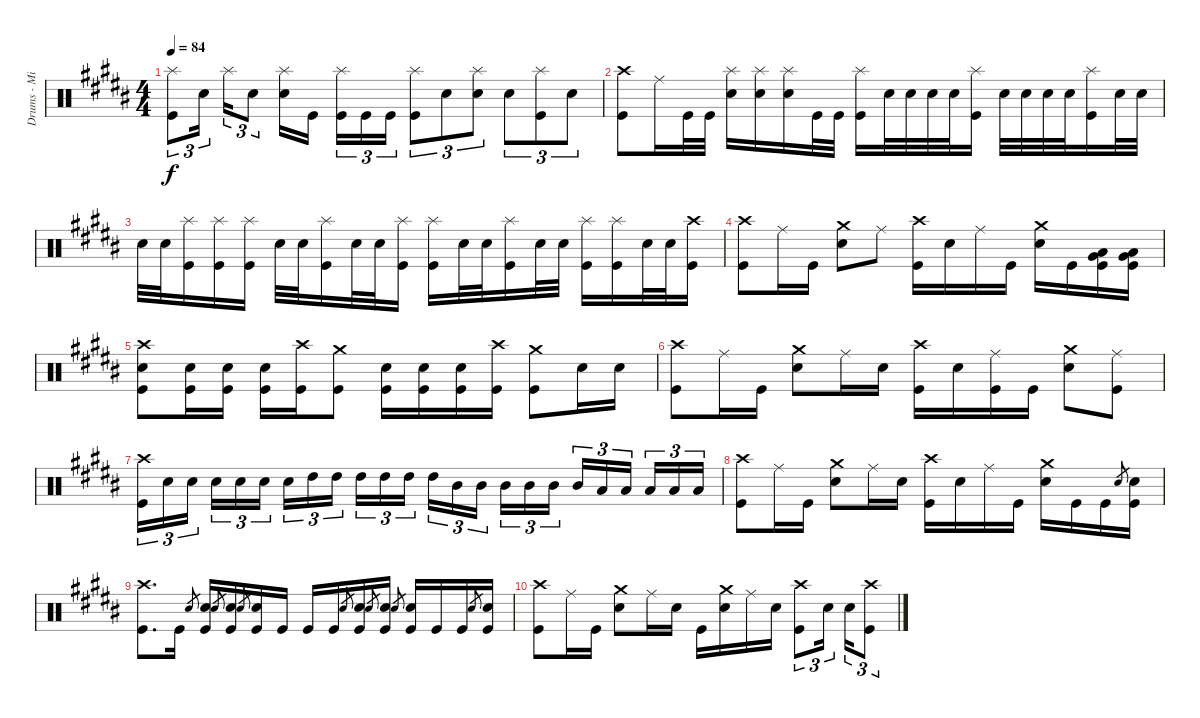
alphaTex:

\track ("Drums - Mike Portnoy" "Drums - Mi") {instrument percussion}
\staff {score}
\articulation defaults
\ts (4 4)
\tempo 84
\clef neutral
\ks b
("Splash (hit)" "Kick (hit)").8{tu (3 2) dy f} "Snare (hit) 2".16{tu (3 2) beam splitsecondary} "Splash (hit)".16{tu (3 2)} "Snare (hit) 2".8{tu (3 2)} ("Splash (hit)" "Snare (hit) 2").16 "Kick (hit)".16{beam splitsecondary} ("Splash (hit)" "Kick (hit)").16{tu (3 2)} "Kick (hit)".16{tu (3 2)} "Kick (hit)".16{tu (3 2)} ("Splash (hit)" "Kick (hit)").8{tu (3 2)} "Snare (hit) 2".8{tu (3 2)} ("Splash (hit)" "Snare (hit) 2").8{tu (3 2)} "Snare (hit) 2".8{tu (3 2)} ("Splash (hit)" "Kick (hit)").8{tu (3 2)} "Snare (hit) 2".8{tu (3 2)} |
("Crash high (hit)" "Kick (hit)").8 "Ride (middle)".16 "Kick (hit)".32 "Kick (hit)".32 ("Splash (hit)" "Snare (hit) 2").16 ("Splash (hit)" "Snare (hit) 2").16 ("Splash (hit)" "Snare (hit) 2").16 "Kick (hit)".32 "Kick (hit)".32 ("Splash (hit)" "Kick (hit)").16 "Snare (hit) 2".32 "Snare (hit) 2".32 "Snare (hit) 2".32 "Snare (hit) 2".32 ("Splash (hit)" "Kick (hit)").16 "Snare (hit) 2".32 "Snare (hit) 2".32 "Snare (hit) 2".32 "Snare (hit) 2".32 ("Splash (hit)" "Kick (hit)").16 "Snare (hit) 2".32 "Snare (hit) 2".32 |
"Snare (hit) 2".32 "Snare (hit) 2".32 ("Splash (hit)" "Kick (hit)").16 ("Splash (hit)" "Kick (hit)").16 ("Splash (hit)" "Kick (hit)").16 "Snare (hit) 2".32 "Snare (hit) 2".32 ("Splash (hit)" "Kick (hit)").16 "Snare (hit) 2".32 "Snare (hit) 2".32 ("Splash (hit)" "Kick (hit)").16 ("Splash (hit)" "Kick (hit)").16 "Snare (hit) 2".32 "Snare (hit) 2".32 ("Splash (hit)" "Kick (hit)").16 "Snare (hit) 2".32 "Snare (hit) 2".32 ("Splash (hit)" "Kick (hit)").16 ("Kick (hit)" "Splash (hit)").16 "Snare (hit) 2".32 "Snare (hit) 2".32 ("Crash high (hit)" "Kick (hit)").16 |
("Crash high (hit)" "Kick (hit)").8 "Ride (middle)".16 "Kick (hit)".16 ("Crash medium (hit)" "Snare (hit) 2").8 "Ride (middle)".8 ("Crash high (hit)" "Kick (hit)").16 "Snare (hit) 2".16 "Ride (middle)".16 "Kick (hit)".16 ("Crash medium (hit)" "Snare (hit) 2").16 "Kick (hit)".16 ("Low Floor Tom (hit)" "Very Low Tom (hit)" "Kick (hit)").16 ("Low Floor Tom (hit)" "Very Low Tom (hit)" "Kick (hit)").16 |
("Crash high (hit)" "Snare (hit) 2" "Kick (hit)").8 ("Snare (hit) 2" "Kick (hit)").16 ("Snare (hit) 2" "Kick (hit)").16 ("Snare (hit) 2" "Kick (hit)").16 ("Crash high (hit)" "Kick (hit)").16 ("Crash medium (hit)" "Kick (hit)").8 ("Snare (hit) 2" "Kick (hit)").16 ("Snare (hit) 2" "Kick (hit)").16 ("Snare (hit) 2" "Kick (hit)").16 ("Crash high (hit)" "Kick (hit)").16 ("Crash medium (hit)" "Kick (hit)").8 "Snare (hit) 2".16 "Snare (hit) 2".16 |
("Crash high (hit)" "Kick (hit)").8 "Ride (middle)".16 "Kick (hit)".16 ("Crash medium (hit)" "Snare (hit) 2").8 "Ride (middle)".16 "Snare (hit) 2".16 ("Crash high (hit)" "Kick (hit)").16 "Snare (hit) 2".16 ("Ride (middle)" "Kick (hit)").16 "Kick (hit)".16 ("Crash medium (hit)" "Snare (hit) 2").8 ("Ride (middle)" "Kick (hit)").8 |
("Crash high (hit)" "Kick (hit)").16{tu (3 2)} "Snare (hit) 2".16{tu (3 2)} "Snare (hit) 2".16{tu (3 2) beam splitsecondary} "Snare (hit) 2".16{tu (3 2)} "Snare (hit) 2".16{tu (3 2)} "Snare (hit) 2".16{tu (3 2)} "Snare (hit) 2".16{tu (3 2)} "High Tom (hit)".16{tu (3 2)} "High Tom (hit)".16{tu (3 2) beam splitsecondary} "High Tom (hit)".16{tu (3 2)} "High Tom (hit)".16{tu (3 2)} "High Tom (hit)".16{tu (3 2)} "High Tom (hit)".16{tu (3 2)} "Mid Tom (hit)".16{tu (3 2)} "Mid Tom (hit)".16{tu (3 2) beam splitsecondary} "Mid Tom (hit)".16{tu (3 2)} "Mid Tom (hit)".16{tu (3 2)} "Mid Tom (hit)".16{tu (3 2)} "Mid Tom (hit)".16{tu (3 2)} "Low Tom (hit)".16{tu (3 2)} "Low Tom (hit)".16{tu (3 2) beam splitsecondary} "Low Tom (hit)".16{tu (3 2)} "Low Tom (hit)".16{tu (3 2)} "Low Tom (hit)".16{tu (3 2)} |
("Crash high (hit)" "Kick (hit)").8 "Ride (middle)".16 "Kick (hit)".16 ("Crash medium (hit)" "Snare (hit) 2").8 "Ride (middle)".16 "Snare (hit) 2".16 ("Crash high (hit)" "Kick (hit)").16 "Snare (hit) 2".16 "Ride (middle)".16 "Kick (hit)".16 ("Crash medium (hit)" "Snare (hit) 2").16 "Kick (hit)".16 "Kick (hit)".16 "Snare (hit) 2".8{gr} ("Snare (hit) 2" "Kick (hit)").16 |
("Crash high (hit)" "Kick (hit)").8{d} "Kick (hit)".16 "Snare (hit) 2".8{gr} ("Snare (hit) 2" "Kick (hit)").16 "Snare (hit) 2".8{gr} ("Snare (hit) 2" "Kick (hit)").16 "Snare (hit) 2".8{gr} ("Snare (hit) 2" "Kick (hit)").16 "Kick (hit)".16 "Kick (hit)".16 "Kick (hit)".16 "Snare (hit) 2".8{gr} ("Snare (hit) 2" "Kick (hit)").16 "Snare (hit) 2".8{gr} ("Snare (hit) 2" "Kick (hit)").16 "Snare (hit) 2".8{gr} ("Snare (hit) 2" "Kick (hit)").16 "Kick (hit)".16 "Kick (hit)".16 "Snare (hit) 2".8{gr} ("Snare (hit) 2" "Kick (hit)").16 |
("Crash high (hit)" "Kick (hit)").8 "Ride (middle)".16 "Kick (hit)".16 ("Crash medium (hit)" "Snare (hit) 2").8 "Ride (middle)".16 "Snare (hit) 2".16 "Kick (hit)".16 ("Crash medium (hit)" "Snare (hit) 2").16 "Ride (middle)".16 "Snare (hit) 2".16 ("Crash high (hit)" "Kick (hit)").8{tu (3 2)} "Snare (hit) 2".16{tu (3 2) beam splitsecondary} "Snare (hit) 2".16{tu (3 2)} ("Crash high (hit)" "Kick (hit)").8{tu (3 2)}
